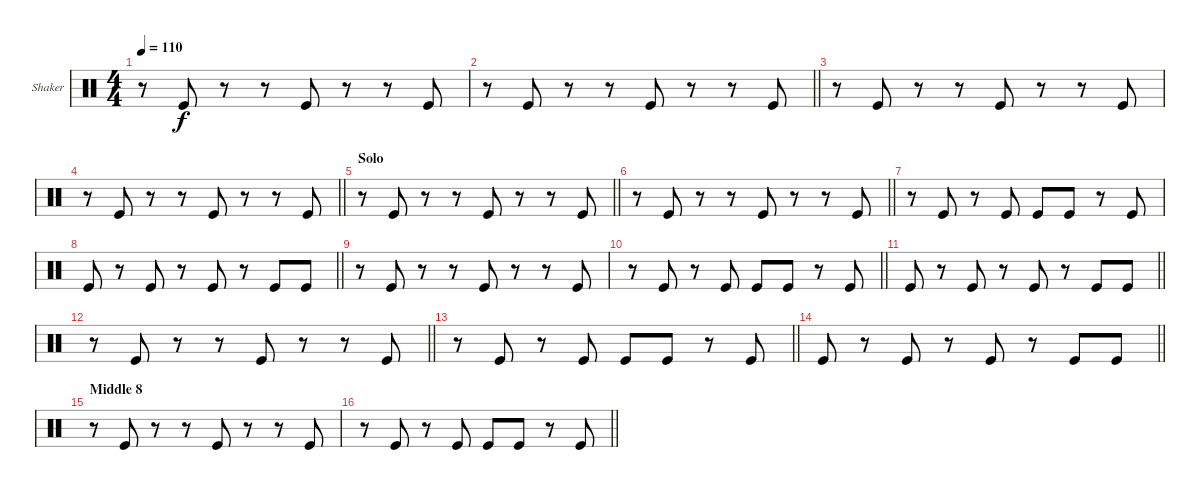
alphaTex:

\bracketExtendMode groupsimilarinstruments
\firstSystemTrackNameOrientation horizontal
\otherSystemsTrackNameOrientation horizontal
\track ("Shaker" "Shaker") {instrument percussion}
\staff {score}
\articulation defaults
\ts (4 4)
\tempo 110
\clef neutral
\ks c
r.8{dy f} "Kick (hit)".8 r.8 r.8 "Kick (hit)".8 r.8 r.8 "Kick (hit)".8 |
\barLineRight lightlight
r.8 "Kick (hit)".8 r.8 r.8 "Kick (hit)".8 r.8 r.8 "Kick (hit)".8 |
r.8 "Kick (hit)".8 r.8 r.8 "Kick (hit)".8 r.8 r.8 "Kick (hit)".8 |
\barLineRight lightlight
r.8 "Kick (hit)".8 r.8 r.8 "Kick (hit)".8 r.8 r.8 "Kick (hit)".8 |
\section ("" "Solo")
\barLineRight lightlight
r.8 "Kick (hit)".8 r.8 r.8 "Kick (hit)".8 r.8 r.8 "Kick (hit)".8 |
\barLineRight lightlight
r.8 "Kick (hit)".8 r.8 r.8 "Kick (hit)".8 r.8 r.8 "Kick (hit)".8 |
r.8 "Kick (hit)".8 r.8 "Kick (hit)".8 "Kick (hit)".8 "Kick (hit)".8 r.8 "Kick (hit)".8 |
\barLineRight lightlight "Kick (hit)".8
r.8 "Kick (hit)".8 r.8 "Kick (hit)".8 r.8 "Kick (hit)".8 "Kick (hit)".8 |
r.8 "Kick (hit)".8 r.8 r.8 "Kick (hit)".8 r.8 r.8 "Kick (hit)".8 |
\barLineRight lightlight
r.8 "Kick (hit)".8 r.8 "Kick (hit)".8 "Kick (hit)".8 "Kick (hit)".8 r.8 "Kick (hit)".8 |
\barLineRight lightlight "Kick (hit)".8
r.8 "Kick (hit)".8 r.8 "Kick (hit)".8 r.8 "Kick (hit)".8 "Kick (hit)".8 |
\barLineRight lightlight
r.8 "Kick (hit)".8 r.8 r.8 "Kick (hit)".8 r.8 r.8 "Kick (hit)".8 |
\barLineRight lightlight
r.8 "Kick (hit)".8 r.8 "Kick (hit)".8 "Kick (hit)".8 "Kick (hit)".8 r.8 "Kick (hit)".8 |
\barLineRight lightlight "Kick (hit)".8
r.8 "Kick (hit)".8 r.8 "Kick (hit)".8 r.8 "Kick (hit)".8 "Kick (hit)".8 |
\section ("" "Middle 8")
r.8 "Kick (hit)".8 r.8 r.8 "Kick (hit)".8 r.8 r.8 "Kick (hit)".8 |
\barLineRight lightlight
r.8 "Kick (hit)".8 r.8 "Kick (hit)".8 "Kick (hit)".8 "Kick (hit)".8 r.8 "Kick (hit)".8
